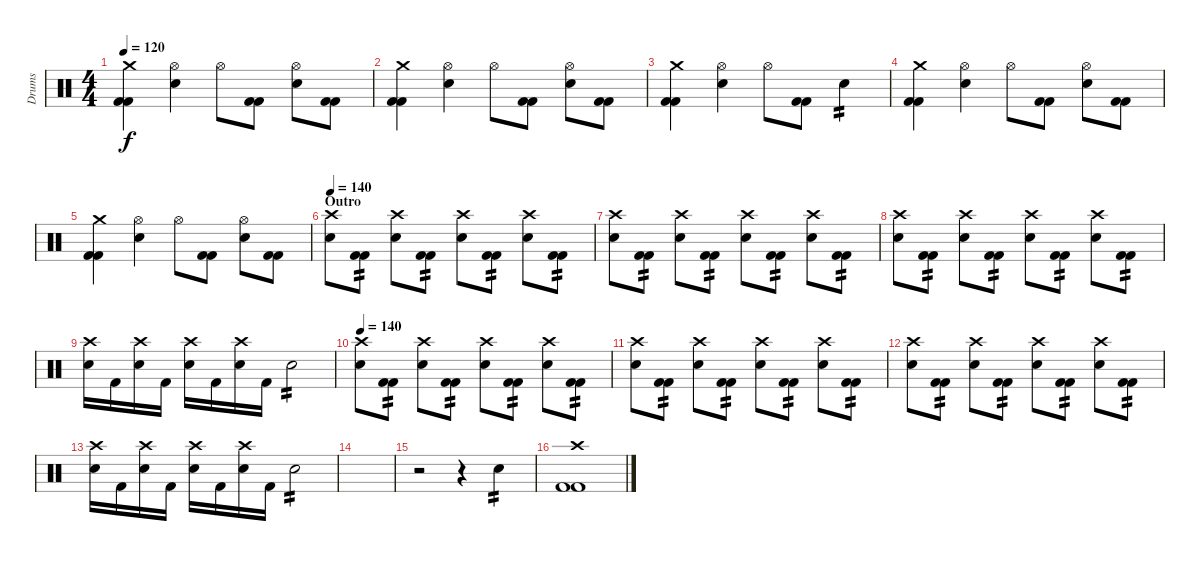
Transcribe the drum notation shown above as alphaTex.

\track ("Drums" "Drums") {instrument percussion}
\staff {score}
\articulation defaults
\ts (4 4)
\tempo 120
\clef neutral
\ks c
("Crash medium (hit)" "Kick (hit) 2" "Kick (hit) 2").4{dy f} ("Electric Snare (hit)" "Hi-Hat (open)").4 "Hi-Hat (open)".8 ("Kick (hit) 2" "Kick (hit) 2").8 ("Electric Snare (hit)" "Hi-Hat (open)").8 ("Kick (hit) 2" "Kick (hit) 2").8 |
("Crash medium (hit)" "Kick (hit) 2" "Kick (hit) 2").4 ("Electric Snare (hit)" "Hi-Hat (open)").4 "Hi-Hat (open)".8 ("Kick (hit) 2" "Kick (hit) 2").8 ("Electric Snare (hit)" "Hi-Hat (open)").8 ("Kick (hit) 2" "Kick (hit) 2").8 |
("Crash medium (hit)" "Kick (hit) 2" "Kick (hit) 2").4 ("Electric Snare (hit)" "Hi-Hat (open)").4 "Hi-Hat (open)".8 ("Kick (hit) 2" "Kick (hit) 2").8 "Electric Snare (hit)".4{tp 2} |
("Crash medium (hit)" "Kick (hit) 2" "Kick (hit) 2").4 ("Electric Snare (hit)" "Hi-Hat (open)").4 "Hi-Hat (open)".8 ("Kick (hit) 2" "Kick (hit) 2").8 ("Electric Snare (hit)" "Hi-Hat (open)").8 ("Kick (hit) 2" "Kick (hit) 2").8 |
("Crash medium (hit)" "Kick (hit) 2" "Kick (hit) 2").4 ("Electric Snare (hit)" "Hi-Hat (open)").4 "Hi-Hat (open)".8 ("Kick (hit) 2" "Kick (hit) 2").8 ("Electric Snare (hit)" "Hi-Hat (open)").8 ("Kick (hit) 2" "Kick (hit) 2").8 |
\section ("" "Outro")
\tempo 140
("Crash high (hit)" "Electric Snare (hit)").8 ("Kick (hit) 2" "Kick (hit) 2").8{tp 2} ("Crash high (hit)" "Electric Snare (hit)").8 ("Kick (hit) 2" "Kick (hit) 2").8{tp 2} ("Crash high (hit)" "Electric Snare (hit)").8 ("Kick (hit) 2" "Kick (hit) 2").8{tp 2} ("Crash high (hit)" "Electric Snare (hit)").8 ("Kick (hit) 2" "Kick (hit) 2").8{tp 2} |
("Crash high (hit)" "Electric Snare (hit)").8 ("Kick (hit) 2" "Kick (hit) 2").8{tp 2} ("Crash high (hit)" "Electric Snare (hit)").8 ("Kick (hit) 2" "Kick (hit) 2").8{tp 2} ("Crash high (hit)" "Electric Snare (hit)").8 ("Kick (hit) 2" "Kick (hit) 2").8{tp 2} ("Crash high (hit)" "Electric Snare (hit)").8 ("Kick (hit) 2" "Kick (hit) 2").8{tp 2} |
("Crash high (hit)" "Electric Snare (hit)").8 ("Kick (hit) 2" "Kick (hit) 2").8{tp 2} ("Crash high (hit)" "Electric Snare (hit)").8 ("Kick (hit) 2" "Kick (hit) 2").8{tp 2} ("Crash high (hit)" "Electric Snare (hit)").8 ("Kick (hit) 2" "Kick (hit) 2").8{tp 2} ("Crash high (hit)" "Electric Snare (hit)").8 ("Kick (hit) 2" "Kick (hit) 2").8{tp 2} |
("Crash high (hit)" "Electric Snare (hit)").16 "Kick (hit) 2".16 ("Electric Snare (hit)" "Crash high (hit)").16 "Kick (hit) 2".16 ("Crash high (hit)" "Electric Snare (hit)").16 "Kick (hit) 2".16 ("Electric Snare (hit)" "Crash high (hit)").16 "Kick (hit) 2".16 "Electric Snare (hit)".2{tp 2} |
\tempo 140
("Crash high (hit)" "Electric Snare (hit)").8 ("Kick (hit) 2" "Kick (hit) 2").8{tp 2} ("Crash high (hit)" "Electric Snare (hit)").8 ("Kick (hit) 2" "Kick (hit) 2").8{tp 2} ("Crash high (hit)" "Electric Snare (hit)").8 ("Kick (hit) 2" "Kick (hit) 2").8{tp 2} ("Crash high (hit)" "Electric Snare (hit)").8 ("Kick (hit) 2" "Kick (hit) 2").8{tp 2} |
("Crash high (hit)" "Electric Snare (hit)").8 ("Kick (hit) 2" "Kick (hit) 2").8{tp 2} ("Crash high (hit)" "Electric Snare (hit)").8 ("Kick (hit) 2" "Kick (hit) 2").8{tp 2} ("Crash high (hit)" "Electric Snare (hit)").8 ("Kick (hit) 2" "Kick (hit) 2").8{tp 2} ("Crash high (hit)" "Electric Snare (hit)").8 ("Kick (hit) 2" "Kick (hit) 2").8{tp 2} |
("Crash high (hit)" "Electric Snare (hit)").8 ("Kick (hit) 2" "Kick (hit) 2").8{tp 2} ("Crash high (hit)" "Electric Snare (hit)").8 ("Kick (hit) 2" "Kick (hit) 2").8{tp 2} ("Crash high (hit)" "Electric Snare (hit)").8 ("Kick (hit) 2" "Kick (hit) 2").8{tp 2} ("Crash high (hit)" "Electric Snare (hit)").8 ("Kick (hit) 2" "Kick (hit) 2").8{tp 2} |
("Crash high (hit)" "Electric Snare (hit)").16 "Kick (hit) 2".16 ("Electric Snare (hit)" "Crash high (hit)").16 "Kick (hit) 2".16 ("Crash high (hit)" "Electric Snare (hit)").16 "Kick (hit) 2".16 ("Electric Snare (hit)" "Crash high (hit)").16 "Kick (hit) 2".16 "Electric Snare (hit)".2{tp 2} |
|
r.2 r.4 "Electric Snare (hit)".4{tp 2} |
("Crash high (hit)" "Kick (hit) 2" "Kick (hit) 2").1
